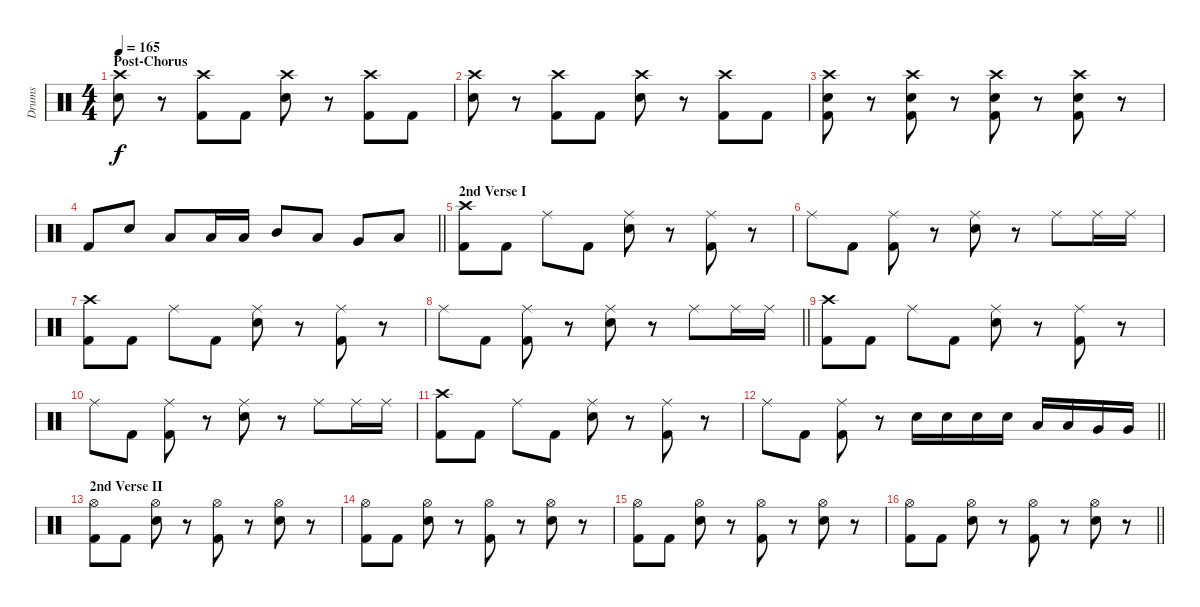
\track ("Drums" "Drums") {instrument percussion}
\staff {score}
\articulation defaults
\ts (4 4)
\section ("" "Post-Chorus")
\tempo 165
\clef neutral
\ks c
("Crash high (hit)" "Electric Snare (hit)").8{dy f} r.8 ("Crash high (hit)" "Kick (hit) 2").8 "Kick (hit) 2".8 ("Crash high (hit)" "Electric Snare (hit)").8 r.8 ("Crash high (hit)" "Kick (hit) 2").8 "Kick (hit) 2".8 |
("Crash high (hit)" "Electric Snare (hit)").8 r.8 ("Crash high (hit)" "Kick (hit) 2").8 "Kick (hit) 2".8 ("Crash high (hit)" "Electric Snare (hit)").8 r.8 ("Crash high (hit)" "Kick (hit) 2").8 "Kick (hit) 2".8 |
("Crash high (hit)" "Electric Snare (hit)" "Kick (hit) 2").8 r.8 ("Crash high (hit)" "Electric Snare (hit)" "Kick (hit) 2").8 r.8 ("Crash high (hit)" "Electric Snare (hit)" "Kick (hit) 2").8 r.8 ("Crash high (hit)" "Electric Snare (hit)" "Kick (hit) 2").8 r.8 |
\barLineRight lightlight "Kick (hit) 2".8 "Electric Snare (hit)".8 "Low Tom (hit)".8 "Low Tom (hit)".16 "Low Tom (hit)".16 "Mid Tom (hit)".8 "Low Tom (hit)".8 "Very Low Tom (hit)".8 "Low Floor Tom (hit)".8
|
\section ("" "2nd Verse I")
("Crash high (hit)" "Kick (hit) 2").8 "Kick (hit) 2".8 "Ride (middle)".8 "Kick (hit) 2".8 ("Ride (middle)" "Electric Snare (hit)").8 r.8 ("Ride (middle)" "Kick (hit) 2").8 r.8 |
"Ride (middle)".8 "Kick (hit) 2".8 ("Ride (middle)" "Kick (hit) 2").8 r.8 ("Ride (middle)" "Electric Snare (hit)").8 r.8 "Ride (middle)".8 "Ride (middle)".16 "Ride (middle)".16 |
("Crash high (hit)" "Kick (hit) 2").8 "Kick (hit) 2".8 "Ride (middle)".8 "Kick (hit) 2".8 ("Ride (middle)" "Electric Snare (hit)").8 r.8 ("Ride (middle)" "Kick (hit) 2").8 r.8 |
\barLineRight lightlight "Ride (middle)".8 "Kick (hit) 2".8
("Ride (middle)" "Kick (hit) 2").8 r.8 ("Ride (middle)" "Electric Snare (hit)").8 r.8 "Ride (middle)".8 "Ride (middle)".16 "Ride (middle)".16 |
("Crash high (hit)" "Kick (hit) 2").8 "Kick (hit) 2".8 "Ride (middle)".8 "Kick (hit) 2".8 ("Ride (middle)" "Electric Snare (hit)").8 r.8 ("Ride (middle)" "Kick (hit) 2").8 r.8 |
"Ride (middle)".8 "Kick (hit) 2".8 ("Ride (middle)" "Kick (hit) 2").8 r.8 ("Ride (middle)" "Electric Snare (hit)").8 r.8 "Ride (middle)".8 "Ride (middle)".16 "Ride (middle)".16 |
("Crash high (hit)" "Kick (hit) 2").8 "Kick (hit) 2".8 "Ride (middle)".8 "Kick (hit) 2".8 ("Ride (middle)" "Electric Snare (hit)").8 r.8 ("Ride (middle)" "Kick (hit) 2").8 r.8 |
\barLineRight lightlight "Ride (middle)".8 "Kick (hit) 2".8
("Ride (middle)" "Kick (hit) 2").8 r.8 "Electric Snare (hit)".16 "Electric Snare (hit)".16 "Electric Snare (hit)".16 "Electric Snare (hit)".16 "Low Tom (hit)".16 "Low Tom (hit)".16 "Very Low Tom (hit)".16 "Very Low Tom (hit)".16 |
\section ("" "2nd Verse II")
("Hi-Hat (open)" "Kick (hit) 2").8 "Kick (hit) 2".8 ("Hi-Hat (open)" "Electric Snare (hit)").8 r.8 ("Hi-Hat (open)" "Kick (hit) 2").8 r.8 ("Hi-Hat (open)" "Electric Snare (hit)").8 r.8 |
("Hi-Hat (open)" "Kick (hit) 2").8 "Kick (hit) 2".8 ("Hi-Hat (open)" "Electric Snare (hit)").8 r.8 ("Hi-Hat (open)" "Kick (hit) 2").8 r.8 ("Hi-Hat (open)" "Electric Snare (hit)").8 r.8 |
("Hi-Hat (open)" "Kick (hit) 2").8 "Kick (hit) 2".8 ("Hi-Hat (open)" "Electric Snare (hit)").8 r.8 ("Hi-Hat (open)" "Kick (hit) 2").8 r.8 ("Hi-Hat (open)" "Electric Snare (hit)").8 r.8 |
\barLineRight lightlight
("Hi-Hat (open)" "Kick (hit) 2").8 "Kick (hit) 2".8 ("Hi-Hat (open)" "Electric Snare (hit)").8 r.8 ("Hi-Hat (open)" "Kick (hit) 2").8 r.8 ("Hi-Hat (open)" "Electric Snare (hit)").8 r.8
